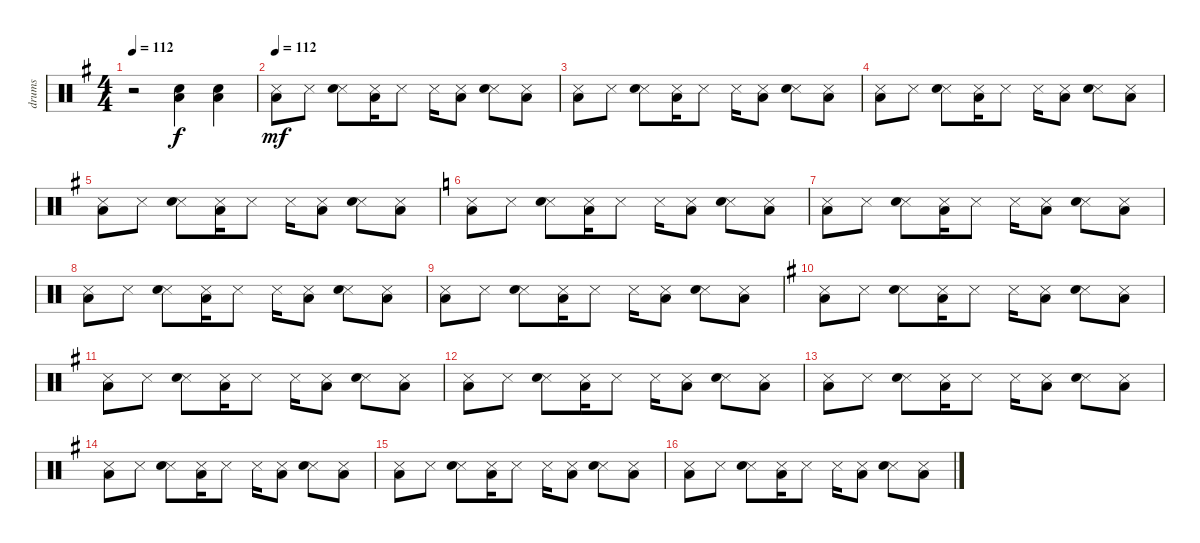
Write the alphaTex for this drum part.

\track ("drums" "drums") {instrument percussion}
\staff {score}
\articulation defaults
\ts (4 4)
\tempo 112
\clef neutral
\ks g
r.2{dy f} ("Snare (hit) 2" "Low Floor Tom (hit)").4 ("Snare (hit) 2" "Low Floor Tom (hit)").4 |
\tempo 112
("Snare (side stick) 3" "Low Floor Tom (hit)").8{dy mf} "Snare (side stick) 3".8 ("Snare (side stick) 3" "Snare (hit) 2").8 ("Snare (side stick) 3" "Low Floor Tom (hit)").16 "Snare (side stick) 3".8 "Snare (side stick) 3".16 ("Snare (side stick) 3" "Low Floor Tom (hit)").8 ("Snare (side stick) 3" "Snare (hit) 2").8 ("Snare (side stick) 3" "Low Floor Tom (hit)").8 |
("Snare (side stick) 3" "Low Floor Tom (hit)").8 "Snare (side stick) 3".8 ("Snare (side stick) 3" "Snare (hit) 2").8 ("Snare (side stick) 3" "Low Floor Tom (hit)").16 "Snare (side stick) 3".8 "Snare (side stick) 3".16 ("Snare (side stick) 3" "Low Floor Tom (hit)").8 ("Snare (side stick) 3" "Snare (hit) 2").8 ("Snare (side stick) 3" "Low Floor Tom (hit)").8 |
("Snare (side stick) 3" "Low Floor Tom (hit)").8 "Snare (side stick) 3".8 ("Snare (side stick) 3" "Snare (hit) 2").8 ("Snare (side stick) 3" "Low Floor Tom (hit)").16 "Snare (side stick) 3".8 "Snare (side stick) 3".16 ("Snare (side stick) 3" "Low Floor Tom (hit)").8 ("Snare (side stick) 3" "Snare (hit) 2").8 ("Snare (side stick) 3" "Low Floor Tom (hit)").8 |
("Snare (side stick) 3" "Low Floor Tom (hit)").8 "Snare (side stick) 3".8 ("Snare (side stick) 3" "Snare (hit) 2").8 ("Snare (side stick) 3" "Low Floor Tom (hit)").16 "Snare (side stick) 3".8 "Snare (side stick) 3".16 ("Snare (side stick) 3" "Low Floor Tom (hit)").8 ("Snare (side stick) 3" "Snare (hit) 2").8 ("Snare (side stick) 3" "Low Floor Tom (hit)").8 |
\ks c
("Snare (side stick) 3" "Low Floor Tom (hit)").8 "Snare (side stick) 3".8 ("Snare (side stick) 3" "Snare (hit) 2").8 ("Snare (side stick) 3" "Low Floor Tom (hit)").16 "Snare (side stick) 3".8 "Snare (side stick) 3".16 ("Snare (side stick) 3" "Low Floor Tom (hit)").8 ("Snare (side stick) 3" "Snare (hit) 2").8 ("Snare (side stick) 3" "Low Floor Tom (hit)").8 |
("Snare (side stick) 3" "Low Floor Tom (hit)").8 "Snare (side stick) 3".8 ("Snare (side stick) 3" "Snare (hit) 2").8 ("Snare (side stick) 3" "Low Floor Tom (hit)").16 "Snare (side stick) 3".8 "Snare (side stick) 3".16 ("Snare (side stick) 3" "Low Floor Tom (hit)").8 ("Snare (side stick) 3" "Snare (hit) 2").8 ("Snare (side stick) 3" "Low Floor Tom (hit)").8 |
("Snare (side stick) 3" "Low Floor Tom (hit)").8 "Snare (side stick) 3".8 ("Snare (side stick) 3" "Snare (hit) 2").8 ("Snare (side stick) 3" "Low Floor Tom (hit)").16 "Snare (side stick) 3".8 "Snare (side stick) 3".16 ("Snare (side stick) 3" "Low Floor Tom (hit)").8 ("Snare (side stick) 3" "Snare (hit) 2").8 ("Snare (side stick) 3" "Low Floor Tom (hit)").8 |
("Snare (side stick) 3" "Low Floor Tom (hit)").8 "Snare (side stick) 3".8 ("Snare (side stick) 3" "Snare (hit) 2").8 ("Snare (side stick) 3" "Low Floor Tom (hit)").16 "Snare (side stick) 3".8 "Snare (side stick) 3".16 ("Snare (side stick) 3" "Low Floor Tom (hit)").8 ("Snare (side stick) 3" "Snare (hit) 2").8 ("Snare (side stick) 3" "Low Floor Tom (hit)").8 |
\ks g
("Snare (side stick) 3" "Low Floor Tom (hit)").8 "Snare (side stick) 3".8 ("Snare (side stick) 3" "Snare (hit) 2").8 ("Snare (side stick) 3" "Low Floor Tom (hit)").16 "Snare (side stick) 3".8 "Snare (side stick) 3".16 ("Snare (side stick) 3" "Low Floor Tom (hit)").8 ("Snare (side stick) 3" "Snare (hit) 2").8 ("Snare (side stick) 3" "Low Floor Tom (hit)").8 |
("Snare (side stick) 3" "Low Floor Tom (hit)").8 "Snare (side stick) 3".8 ("Snare (side stick) 3" "Snare (hit) 2").8 ("Snare (side stick) 3" "Low Floor Tom (hit)").16 "Snare (side stick) 3".8 "Snare (side stick) 3".16 ("Snare (side stick) 3" "Low Floor Tom (hit)").8 ("Snare (side stick) 3" "Snare (hit) 2").8 ("Snare (side stick) 3" "Low Floor Tom (hit)").8 |
("Snare (side stick) 3" "Low Floor Tom (hit)").8 "Snare (side stick) 3".8 ("Snare (side stick) 3" "Snare (hit) 2").8 ("Snare (side stick) 3" "Low Floor Tom (hit)").16 "Snare (side stick) 3".8 "Snare (side stick) 3".16 ("Snare (side stick) 3" "Low Floor Tom (hit)").8 ("Snare (side stick) 3" "Snare (hit) 2").8 ("Snare (side stick) 3" "Low Floor Tom (hit)").8 |
("Snare (side stick) 3" "Low Floor Tom (hit)").8 "Snare (side stick) 3".8 ("Snare (side stick) 3" "Snare (hit) 2").8 ("Snare (side stick) 3" "Low Floor Tom (hit)").16 "Snare (side stick) 3".8 "Snare (side stick) 3".16 ("Snare (side stick) 3" "Low Floor Tom (hit)").8 ("Snare (side stick) 3" "Snare (hit) 2").8 ("Snare (side stick) 3" "Low Floor Tom (hit)").8 |
("Snare (side stick) 3" "Low Floor Tom (hit)").8 "Snare (side stick) 3".8 ("Snare (side stick) 3" "Snare (hit) 2").8 ("Snare (side stick) 3" "Low Floor Tom (hit)").16 "Snare (side stick) 3".8 "Snare (side stick) 3".16 ("Snare (side stick) 3" "Low Floor Tom (hit)").8 ("Snare (side stick) 3" "Snare (hit) 2").8 ("Snare (side stick) 3" "Low Floor Tom (hit)").8 |
("Snare (side stick) 3" "Low Floor Tom (hit)").8 "Snare (side stick) 3".8 ("Snare (side stick) 3" "Snare (hit) 2").8 ("Snare (side stick) 3" "Low Floor Tom (hit)").16 "Snare (side stick) 3".8 "Snare (side stick) 3".16 ("Snare (side stick) 3" "Low Floor Tom (hit)").8 ("Snare (side stick) 3" "Snare (hit) 2").8 ("Snare (side stick) 3" "Low Floor Tom (hit)").8 |
("Snare (side stick) 3" "Low Floor Tom (hit)").8 "Snare (side stick) 3".8 ("Snare (side stick) 3" "Snare (hit) 2").8 ("Snare (side stick) 3" "Low Floor Tom (hit)").16 "Snare (side stick) 3".8 "Snare (side stick) 3".16 ("Snare (side stick) 3" "Low Floor Tom (hit)").8 ("Snare (side stick) 3" "Snare (hit) 2").8 ("Snare (side stick) 3" "Low Floor Tom (hit)").8
